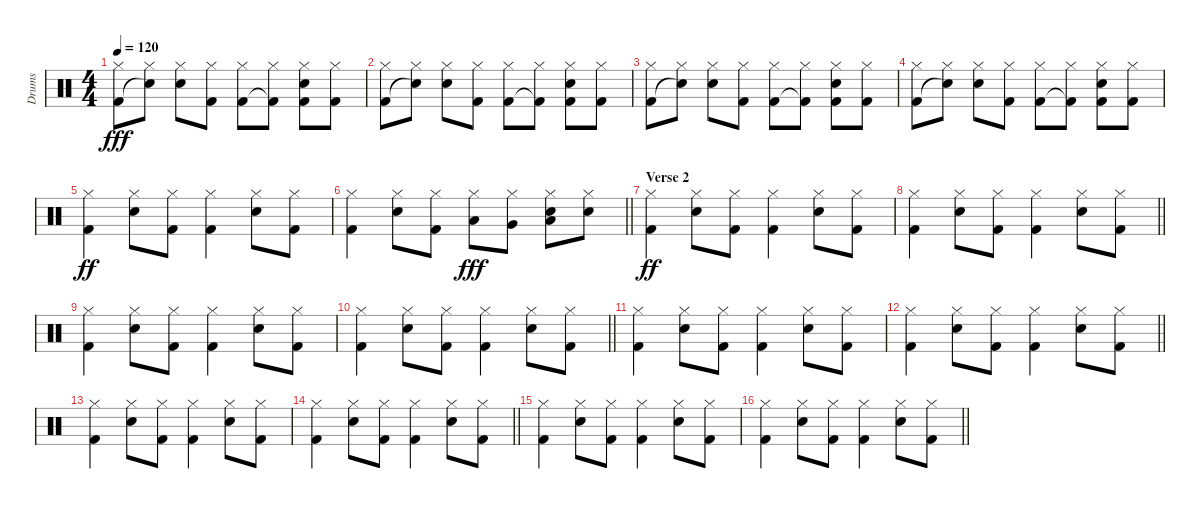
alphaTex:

\track ("Drums" "Drums") {instrument percussion}
\staff {score}
\articulation defaults
\ts (4 4)
\tempo 120
\clef neutral
\ks c
("Hi-Hat (closed)" "Kick (hit) 2").8{dy fff} ("Hi-Hat (closed)" "Snare (hit)"{t}).8 ("Hi-Hat (closed)" "Snare (hit) 2").8 ("Hi-Hat (closed)" "Kick (hit) 2").8 ("Hi-Hat (closed)" "Kick (hit) 2").8 ("Hi-Hat (closed)" "Kick (hit) 2"{t}).8 ("Hi-Hat (closed)" "Snare (hit) 2" "Kick (hit) 2").8 ("Hi-Hat (closed)" "Kick (hit) 2").8 |
("Hi-Hat (closed)" "Kick (hit) 2").8 ("Hi-Hat (closed)" "Snare (hit)"{t}).8 ("Hi-Hat (closed)" "Snare (hit) 2").8 ("Hi-Hat (closed)" "Kick (hit) 2").8 ("Hi-Hat (closed)" "Kick (hit) 2").8 ("Hi-Hat (closed)" "Kick (hit) 2"{t}).8 ("Hi-Hat (closed)" "Snare (hit) 2" "Kick (hit) 2").8 ("Hi-Hat (closed)" "Kick (hit) 2").8 |
("Hi-Hat (closed)" "Kick (hit) 2").8 ("Hi-Hat (closed)" "Snare (hit)"{t}).8 ("Hi-Hat (closed)" "Snare (hit) 2").8 ("Hi-Hat (closed)" "Kick (hit) 2").8 ("Hi-Hat (closed)" "Kick (hit) 2").8 ("Hi-Hat (closed)" "Kick (hit) 2"{t}).8 ("Hi-Hat (closed)" "Snare (hit) 2" "Kick (hit) 2").8 ("Hi-Hat (closed)" "Kick (hit) 2").8 |
("Hi-Hat (closed)" "Kick (hit) 2").8 ("Hi-Hat (closed)" "Snare (hit)"{t}).8 ("Hi-Hat (closed)" "Snare (hit) 2").8 ("Hi-Hat (closed)" "Kick (hit) 2").8 ("Hi-Hat (closed)" "Kick (hit) 2").8 ("Hi-Hat (closed)" "Kick (hit) 2"{t}).8 ("Hi-Hat (closed)" "Snare (hit) 2" "Kick (hit) 2").8 ("Hi-Hat (closed)" "Kick (hit) 2").8 |
("Hi-Hat (closed)" "Kick (hit) 2").4{dy ff} ("Hi-Hat (closed)" "Snare (hit) 2").8 ("Hi-Hat (closed)" "Kick (hit) 2").8 ("Hi-Hat (closed)" "Kick (hit) 2").4 ("Hi-Hat (closed)" "Snare (hit) 2").8 ("Hi-Hat (closed)" "Kick (hit) 2").8 |
\barLineRight lightlight
("Hi-Hat (closed)" "Kick (hit) 2").4 ("Hi-Hat (closed)" "Snare (hit) 2").8 ("Hi-Hat (closed)" "Kick (hit) 2").8 ("Hi-Hat (closed)" "Low Tom (hit)").8{dy fff} ("Hi-Hat (closed)" "Very Low Tom (hit)").8 ("Hi-Hat (closed)" "Snare (hit) 2" "Low Floor Tom (hit)").8 ("Hi-Hat (closed)" "Snare (hit) 2").8 |
\section ("" "Verse 2")
("Hi-Hat (closed)" "Kick (hit) 2").4{dy ff} ("Hi-Hat (closed)" "Snare (hit) 2").8 ("Hi-Hat (closed)" "Kick (hit) 2").8 ("Hi-Hat (closed)" "Kick (hit) 2").4 ("Hi-Hat (closed)" "Snare (hit) 2").8 ("Hi-Hat (closed)" "Kick (hit) 2").8 |
\barLineRight lightlight
("Hi-Hat (closed)" "Kick (hit) 2").4 ("Hi-Hat (closed)" "Snare (hit) 2").8 ("Hi-Hat (closed)" "Kick (hit) 2").8 ("Hi-Hat (closed)" "Kick (hit) 2").4 ("Hi-Hat (closed)" "Snare (hit) 2").8 ("Hi-Hat (closed)" "Kick (hit) 2").8 |
("Hi-Hat (closed)" "Kick (hit) 2").4 ("Hi-Hat (closed)" "Snare (hit) 2").8 ("Hi-Hat (closed)" "Kick (hit) 2").8 ("Hi-Hat (closed)" "Kick (hit) 2").4 ("Hi-Hat (closed)" "Snare (hit) 2").8 ("Hi-Hat (closed)" "Kick (hit) 2").8 |
\barLineRight lightlight
("Hi-Hat (closed)" "Kick (hit) 2").4 ("Hi-Hat (closed)" "Snare (hit) 2").8 ("Hi-Hat (closed)" "Kick (hit) 2").8 ("Hi-Hat (closed)" "Kick (hit) 2").4 ("Hi-Hat (closed)" "Snare (hit) 2").8 ("Hi-Hat (closed)" "Kick (hit) 2").8 |
("Hi-Hat (closed)" "Kick (hit) 2").4 ("Hi-Hat (closed)" "Snare (hit) 2").8 ("Hi-Hat (closed)" "Kick (hit) 2").8 ("Hi-Hat (closed)" "Kick (hit) 2").4 ("Hi-Hat (closed)" "Snare (hit) 2").8 ("Hi-Hat (closed)" "Kick (hit) 2").8 |
\barLineRight lightlight
("Hi-Hat (closed)" "Kick (hit) 2").4 ("Hi-Hat (closed)" "Snare (hit) 2").8 ("Hi-Hat (closed)" "Kick (hit) 2").8 ("Hi-Hat (closed)" "Kick (hit) 2").4 ("Hi-Hat (closed)" "Snare (hit) 2").8 ("Hi-Hat (closed)" "Kick (hit) 2").8 |
("Hi-Hat (closed)" "Kick (hit) 2").4 ("Hi-Hat (closed)" "Snare (hit) 2").8 ("Hi-Hat (closed)" "Kick (hit) 2").8 ("Hi-Hat (closed)" "Kick (hit) 2").4 ("Hi-Hat (closed)" "Snare (hit) 2").8 ("Hi-Hat (closed)" "Kick (hit) 2").8 |
\barLineRight lightlight
("Hi-Hat (closed)" "Kick (hit) 2").4 ("Hi-Hat (closed)" "Snare (hit) 2").8 ("Hi-Hat (closed)" "Kick (hit) 2").8 ("Hi-Hat (closed)" "Kick (hit) 2").4 ("Hi-Hat (closed)" "Snare (hit) 2").8 ("Hi-Hat (closed)" "Kick (hit) 2").8 |
("Hi-Hat (closed)" "Kick (hit) 2").4 ("Hi-Hat (closed)" "Snare (hit) 2").8 ("Hi-Hat (closed)" "Kick (hit) 2").8 ("Hi-Hat (closed)" "Kick (hit) 2").4 ("Hi-Hat (closed)" "Snare (hit) 2").8 ("Hi-Hat (closed)" "Kick (hit) 2").8 |
\barLineRight lightlight
("Hi-Hat (closed)" "Kick (hit) 2").4 ("Hi-Hat (closed)" "Snare (hit) 2").8 ("Hi-Hat (closed)" "Kick (hit) 2").8 ("Hi-Hat (closed)" "Kick (hit) 2").4 ("Hi-Hat (closed)" "Snare (hit) 2").8 ("Hi-Hat (closed)" "Kick (hit) 2").8
